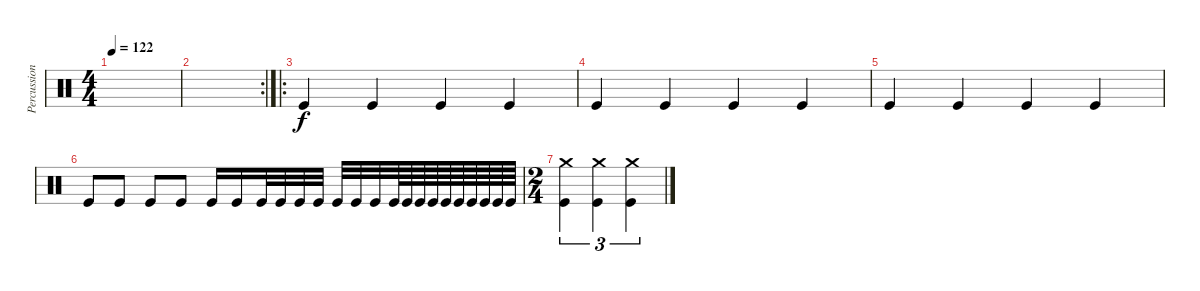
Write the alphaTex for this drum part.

\track ("Percussion" "Percussion") {instrument percussion}
\staff {score}
\articulation defaults
\ts (4 4)
\tempo 122
\clef neutral
\ks c
|
\rc 2
|
\ro "Kick (hit)".4 "Kick (hit)".4 "Kick (hit)".4 "Kick (hit)".4
|
"Kick (hit)".4 "Kick (hit)".4 "Kick (hit)".4 "Kick (hit)".4 |
"Kick (hit)".4 "Kick (hit)".4 "Kick (hit)".4 "Kick (hit)".4 |
"Kick (hit)".8 "Kick (hit)".8 "Kick (hit)".8 "Kick (hit)".8 "Kick (hit)".16 "Kick (hit)".16 "Kick (hit)".32 "Kick (hit)".32 "Kick (hit)".32 "Kick (hit)".32 "Kick (hit)".32 "Kick (hit)".32 "Kick (hit)".32 "Kick (hit)".64 "Kick (hit)".64 "Kick (hit)".64 "Kick (hit)".64 "Kick (hit)".64 "Kick (hit)".64 "Kick (hit)".64 "Kick (hit)".64 "Kick (hit)".64 "Kick (hit)".64 |
\ts (2 4)
("Kick (hit)" "Crash medium (hit)").4{tu (3 2)} ("Kick (hit)" "Crash medium (hit)").4{tu (3 2)} ("Kick (hit)" "Crash medium (hit)").4{tu (3 2)}
